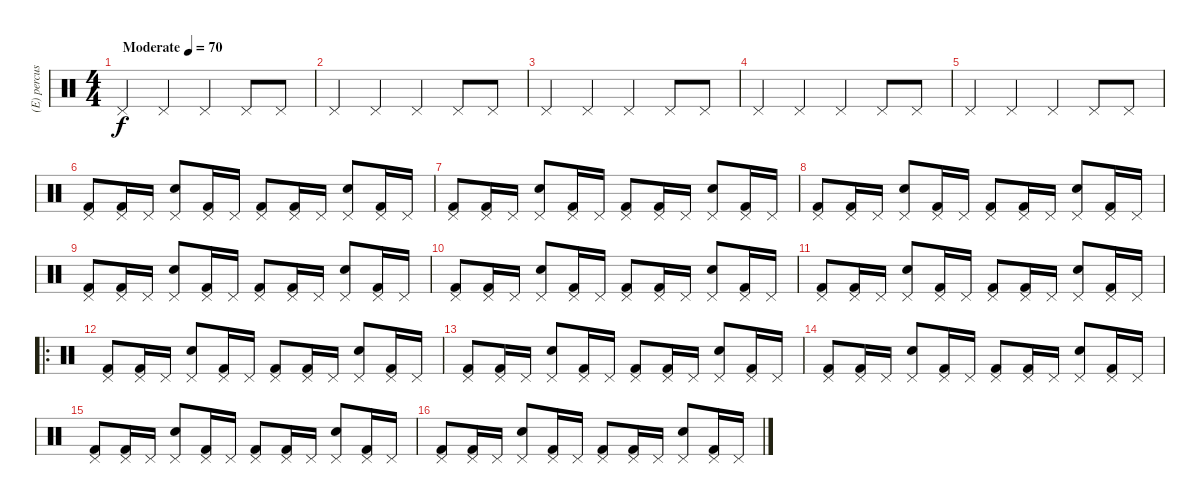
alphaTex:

\track ("(E) percussion" "(E) percus") {instrument percussion}
\staff {score}
\articulation defaults
\ts (4 4)
\tempo (70 "Moderate")
\clef neutral
\ks c "Pedal Hi-Hat (hit)".4{dy f} "Pedal Hi-Hat (hit)".4 "Pedal Hi-Hat (hit)".4 "Pedal Hi-Hat (hit)".8 "Pedal Hi-Hat (hit)".8
|
"Pedal Hi-Hat (hit)".4 "Pedal Hi-Hat (hit)".4 "Pedal Hi-Hat (hit)".4 "Pedal Hi-Hat (hit)".8 "Pedal Hi-Hat (hit)".8 |
"Pedal Hi-Hat (hit)".4 "Pedal Hi-Hat (hit)".4 "Pedal Hi-Hat (hit)".4 "Pedal Hi-Hat (hit)".8 "Pedal Hi-Hat (hit)".8 |
"Pedal Hi-Hat (hit)".4 "Pedal Hi-Hat (hit)".4 "Pedal Hi-Hat (hit)".4 "Pedal Hi-Hat (hit)".8 "Pedal Hi-Hat (hit)".8 |
"Pedal Hi-Hat (hit)".4 "Pedal Hi-Hat (hit)".4 "Pedal Hi-Hat (hit)".4 "Pedal Hi-Hat (hit)".8 "Pedal Hi-Hat (hit)".8 |
("Pedal Hi-Hat (hit)" "Kick (hit) 2").8 ("Pedal Hi-Hat (hit)" "Kick (hit) 2").16 "Pedal Hi-Hat (hit)".16 ("Pedal Hi-Hat (hit)" "Snare (hit) 2").8 ("Pedal Hi-Hat (hit)" "Kick (hit) 2").16 "Pedal Hi-Hat (hit)".16 ("Pedal Hi-Hat (hit)" "Kick (hit) 2").8 ("Pedal Hi-Hat (hit)" "Kick (hit) 2").16 "Pedal Hi-Hat (hit)".16 ("Pedal Hi-Hat (hit)" "Snare (hit) 2").8 ("Pedal Hi-Hat (hit)" "Kick (hit) 2").16 "Pedal Hi-Hat (hit)".16 |
("Pedal Hi-Hat (hit)" "Kick (hit) 2").8 ("Pedal Hi-Hat (hit)" "Kick (hit) 2").16 "Pedal Hi-Hat (hit)".16 ("Pedal Hi-Hat (hit)" "Snare (hit) 2").8 ("Pedal Hi-Hat (hit)" "Kick (hit) 2").16 "Pedal Hi-Hat (hit)".16 ("Pedal Hi-Hat (hit)" "Kick (hit) 2").8 ("Pedal Hi-Hat (hit)" "Kick (hit) 2").16 "Pedal Hi-Hat (hit)".16 ("Pedal Hi-Hat (hit)" "Snare (hit) 2").8 ("Pedal Hi-Hat (hit)" "Kick (hit) 2").16 "Pedal Hi-Hat (hit)".16 |
("Pedal Hi-Hat (hit)" "Kick (hit) 2").8 ("Pedal Hi-Hat (hit)" "Kick (hit) 2").16 "Pedal Hi-Hat (hit)".16 ("Pedal Hi-Hat (hit)" "Snare (hit) 2").8 ("Pedal Hi-Hat (hit)" "Kick (hit) 2").16 "Pedal Hi-Hat (hit)".16 ("Pedal Hi-Hat (hit)" "Kick (hit) 2").8 ("Pedal Hi-Hat (hit)" "Kick (hit) 2").16 "Pedal Hi-Hat (hit)".16 ("Pedal Hi-Hat (hit)" "Snare (hit) 2").8 ("Pedal Hi-Hat (hit)" "Kick (hit) 2").16 "Pedal Hi-Hat (hit)".16 |
("Pedal Hi-Hat (hit)" "Kick (hit) 2").8 ("Pedal Hi-Hat (hit)" "Kick (hit) 2").16 "Pedal Hi-Hat (hit)".16 ("Pedal Hi-Hat (hit)" "Snare (hit) 2").8 ("Pedal Hi-Hat (hit)" "Kick (hit) 2").16 "Pedal Hi-Hat (hit)".16 ("Pedal Hi-Hat (hit)" "Kick (hit) 2").8 ("Pedal Hi-Hat (hit)" "Kick (hit) 2").16 "Pedal Hi-Hat (hit)".16 ("Pedal Hi-Hat (hit)" "Snare (hit) 2").8 ("Pedal Hi-Hat (hit)" "Kick (hit) 2").16 "Pedal Hi-Hat (hit)".16 |
("Pedal Hi-Hat (hit)" "Kick (hit) 2").8 ("Pedal Hi-Hat (hit)" "Kick (hit) 2").16 "Pedal Hi-Hat (hit)".16 ("Pedal Hi-Hat (hit)" "Snare (hit) 2").8 ("Pedal Hi-Hat (hit)" "Kick (hit) 2").16 "Pedal Hi-Hat (hit)".16 ("Pedal Hi-Hat (hit)" "Kick (hit) 2").8 ("Pedal Hi-Hat (hit)" "Kick (hit) 2").16 "Pedal Hi-Hat (hit)".16 ("Pedal Hi-Hat (hit)" "Snare (hit) 2").8 ("Pedal Hi-Hat (hit)" "Kick (hit) 2").16 "Pedal Hi-Hat (hit)".16 |
("Pedal Hi-Hat (hit)" "Kick (hit) 2").8 ("Pedal Hi-Hat (hit)" "Kick (hit) 2").16 "Pedal Hi-Hat (hit)".16 ("Pedal Hi-Hat (hit)" "Snare (hit) 2").8 ("Pedal Hi-Hat (hit)" "Kick (hit) 2").16 "Pedal Hi-Hat (hit)".16 ("Pedal Hi-Hat (hit)" "Kick (hit) 2").8 ("Pedal Hi-Hat (hit)" "Kick (hit) 2").16 "Pedal Hi-Hat (hit)".16 ("Pedal Hi-Hat (hit)" "Snare (hit) 2").8 ("Pedal Hi-Hat (hit)" "Kick (hit) 2").16 "Pedal Hi-Hat (hit)".16 |
\ro
("Pedal Hi-Hat (hit)" "Kick (hit) 2").8 ("Pedal Hi-Hat (hit)" "Kick (hit) 2").16 "Pedal Hi-Hat (hit)".16 ("Pedal Hi-Hat (hit)" "Snare (hit) 2").8 ("Pedal Hi-Hat (hit)" "Kick (hit) 2").16 "Pedal Hi-Hat (hit)".16 ("Pedal Hi-Hat (hit)" "Kick (hit) 2").8 ("Pedal Hi-Hat (hit)" "Kick (hit) 2").16 "Pedal Hi-Hat (hit)".16 ("Pedal Hi-Hat (hit)" "Snare (hit) 2").8 ("Pedal Hi-Hat (hit)" "Kick (hit) 2").16 "Pedal Hi-Hat (hit)".16 |
("Pedal Hi-Hat (hit)" "Kick (hit) 2").8 ("Pedal Hi-Hat (hit)" "Kick (hit) 2").16 "Pedal Hi-Hat (hit)".16 ("Pedal Hi-Hat (hit)" "Snare (hit) 2").8 ("Pedal Hi-Hat (hit)" "Kick (hit) 2").16 "Pedal Hi-Hat (hit)".16 ("Pedal Hi-Hat (hit)" "Kick (hit) 2").8 ("Pedal Hi-Hat (hit)" "Kick (hit) 2").16 "Pedal Hi-Hat (hit)".16 ("Pedal Hi-Hat (hit)" "Snare (hit) 2").8 ("Pedal Hi-Hat (hit)" "Kick (hit) 2").16 "Pedal Hi-Hat (hit)".16 |
("Pedal Hi-Hat (hit)" "Kick (hit) 2").8 ("Pedal Hi-Hat (hit)" "Kick (hit) 2").16 "Pedal Hi-Hat (hit)".16 ("Pedal Hi-Hat (hit)" "Snare (hit) 2").8 ("Pedal Hi-Hat (hit)" "Kick (hit) 2").16 "Pedal Hi-Hat (hit)".16 ("Pedal Hi-Hat (hit)" "Kick (hit) 2").8 ("Pedal Hi-Hat (hit)" "Kick (hit) 2").16 "Pedal Hi-Hat (hit)".16 ("Pedal Hi-Hat (hit)" "Snare (hit) 2").8 ("Pedal Hi-Hat (hit)" "Kick (hit) 2").16 "Pedal Hi-Hat (hit)".16 |
("Pedal Hi-Hat (hit)" "Kick (hit) 2").8 ("Pedal Hi-Hat (hit)" "Kick (hit) 2").16 "Pedal Hi-Hat (hit)".16 ("Pedal Hi-Hat (hit)" "Snare (hit) 2").8 ("Pedal Hi-Hat (hit)" "Kick (hit) 2").16 "Pedal Hi-Hat (hit)".16 ("Pedal Hi-Hat (hit)" "Kick (hit) 2").8 ("Pedal Hi-Hat (hit)" "Kick (hit) 2").16 "Pedal Hi-Hat (hit)".16 ("Pedal Hi-Hat (hit)" "Snare (hit) 2").8 ("Pedal Hi-Hat (hit)" "Kick (hit) 2").16 "Pedal Hi-Hat (hit)".16 |
("Pedal Hi-Hat (hit)" "Kick (hit) 2").8 ("Pedal Hi-Hat (hit)" "Kick (hit) 2").16 "Pedal Hi-Hat (hit)".16 ("Pedal Hi-Hat (hit)" "Snare (hit) 2").8 ("Pedal Hi-Hat (hit)" "Kick (hit) 2").16 "Pedal Hi-Hat (hit)".16 ("Pedal Hi-Hat (hit)" "Kick (hit) 2").8 ("Pedal Hi-Hat (hit)" "Kick (hit) 2").16 "Pedal Hi-Hat (hit)".16 ("Pedal Hi-Hat (hit)" "Snare (hit) 2").8 ("Pedal Hi-Hat (hit)" "Kick (hit) 2").16 "Pedal Hi-Hat (hit)".16
